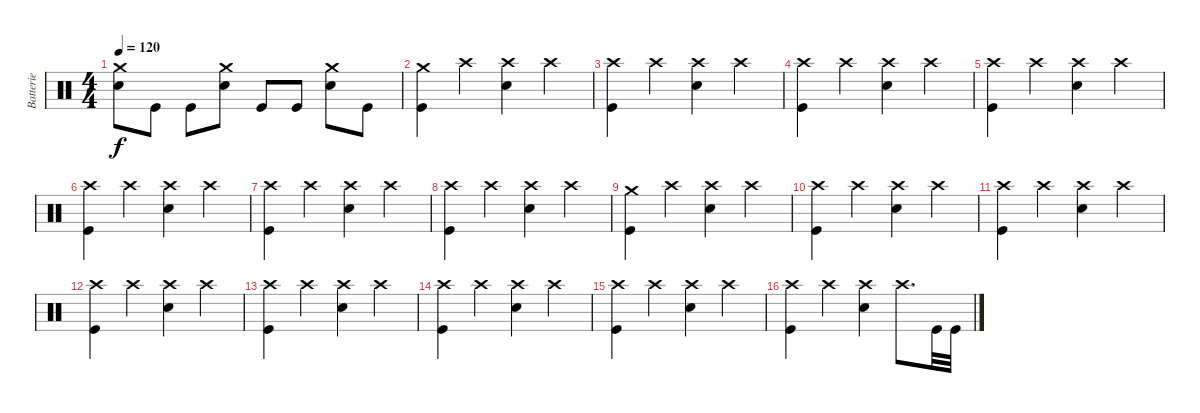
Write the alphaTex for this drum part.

\track ("Batterie" "Batterie") {instrument percussion}
\staff {score}
\articulation defaults
\ts (4 4)
\tempo 120
\clef neutral
\ks c
("Crash medium (hit)" "Electric Snare (hit)").8{dy f} "Kick (hit)".8 "Kick (hit)".8 ("Crash medium (hit)" "Electric Snare (hit)").8 "Kick (hit)".8 "Kick (hit)".8 ("Crash medium (hit)" "Electric Snare (hit)").8 "Kick (hit)".8 |
("Crash medium (hit)" "Kick (hit)").4 "Crash high (hit)".4 ("Crash high (hit)" "Electric Snare (hit)").4 "Crash high (hit)".4 |
("Crash high (hit)" "Kick (hit)").4 "Crash high (hit)".4 ("Crash high (hit)" "Electric Snare (hit)").4 "Crash high (hit)".4 |
("Crash high (hit)" "Kick (hit)").4 "Crash high (hit)".4 ("Crash high (hit)" "Electric Snare (hit)").4 "Crash high (hit)".4 |
("Crash high (hit)" "Kick (hit)").4 "Crash high (hit)".4 ("Crash high (hit)" "Electric Snare (hit)").4 "Crash high (hit)".4 |
("Crash high (hit)" "Kick (hit)").4 "Crash high (hit)".4 ("Crash high (hit)" "Electric Snare (hit)").4 "Crash high (hit)".4 |
("Crash high (hit)" "Kick (hit)").4 "Crash high (hit)".4 ("Crash high (hit)" "Electric Snare (hit)").4 "Crash high (hit)".4 |
("Crash high (hit)" "Kick (hit)").4 "Crash high (hit)".4 ("Crash high (hit)" "Electric Snare (hit)").4 "Crash high (hit)".4 |
("Crash medium (hit)" "Kick (hit)").4 "Crash high (hit)".4 ("Crash high (hit)" "Electric Snare (hit)").4 "Crash high (hit)".4 |
("Crash high (hit)" "Kick (hit)").4 "Crash high (hit)".4 ("Crash high (hit)" "Electric Snare (hit)").4 "Crash high (hit)".4 |
("Crash high (hit)" "Kick (hit)").4 "Crash high (hit)".4 ("Crash high (hit)" "Electric Snare (hit)").4 "Crash high (hit)".4 |
("Crash high (hit)" "Kick (hit)").4 "Crash high (hit)".4 ("Crash high (hit)" "Electric Snare (hit)").4 "Crash high (hit)".4 |
("Crash high (hit)" "Kick (hit)").4 "Crash high (hit)".4 ("Crash high (hit)" "Electric Snare (hit)").4 "Crash high (hit)".4 |
("Crash high (hit)" "Kick (hit)").4 "Crash high (hit)".4 ("Crash high (hit)" "Electric Snare (hit)").4 "Crash high (hit)".4 |
("Crash high (hit)" "Kick (hit)").4 "Crash high (hit)".4 ("Crash high (hit)" "Electric Snare (hit)").4 "Crash high (hit)".4 |
("Crash high (hit)" "Kick (hit)").4 "Crash high (hit)".4 ("Crash high (hit)" "Electric Snare (hit)").4 "Crash high (hit)".8{d} "Kick (hit)".32 "Kick (hit)".32
